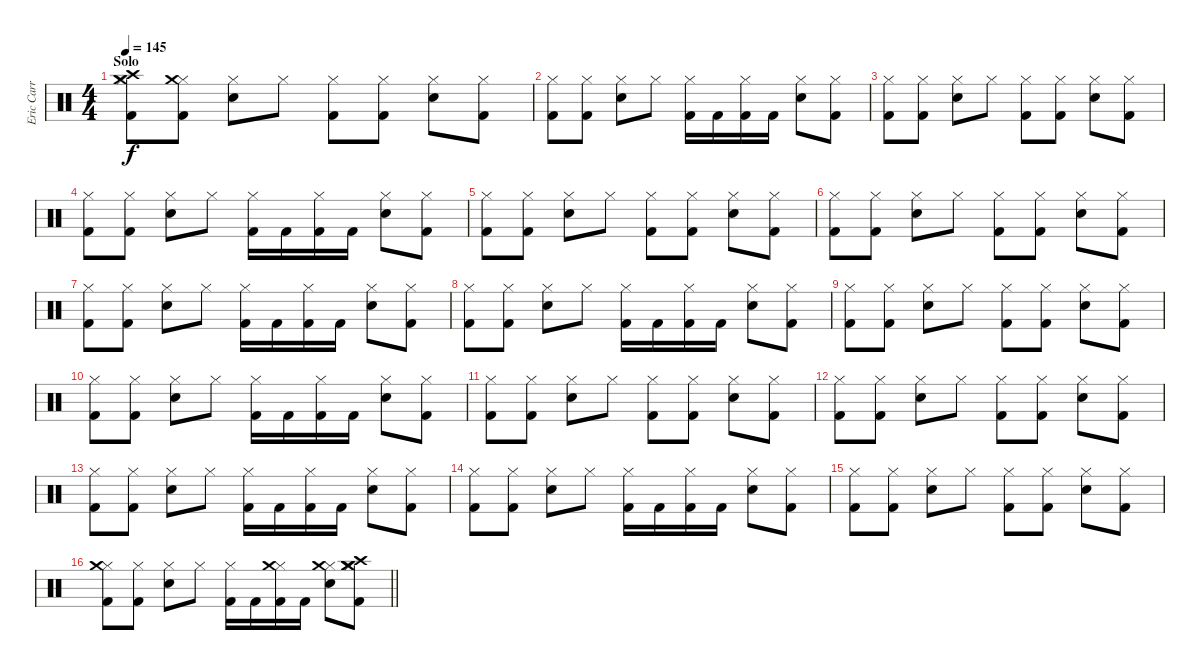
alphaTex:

\track ("Eric Carr" "Eric Carr") {instrument percussion}
\staff {score}
\articulation defaults
\ts (4 4)
\section ("" "Solo")
\tempo 145
\clef neutral
\ks c
("Hi-Hat (closed)" "Crash medium (hit)" "Crash high (hit)" "Kick (hit) 2").8{dy f} ("Hi-Hat (closed)" "Crash medium (hit)" "Kick (hit) 2").8 ("Hi-Hat (closed)" "Snare (hit) 2").8 "Hi-Hat (closed)".8 ("Hi-Hat (closed)" "Kick (hit) 2").8 ("Hi-Hat (closed)" "Kick (hit) 2").8 ("Hi-Hat (closed)" "Snare (hit) 2").8 ("Hi-Hat (closed)" "Kick (hit) 2").8 |
("Hi-Hat (closed)" "Kick (hit) 2").8 ("Hi-Hat (closed)" "Kick (hit) 2").8 ("Hi-Hat (closed)" "Snare (hit) 2").8 "Hi-Hat (closed)".8 ("Hi-Hat (closed)" "Kick (hit) 2").16 "Kick (hit) 2".16 ("Hi-Hat (closed)" "Kick (hit) 2").16 "Kick (hit) 2".16 ("Hi-Hat (closed)" "Snare (hit) 2").8 ("Hi-Hat (closed)" "Kick (hit) 2").8 |
("Hi-Hat (closed)" "Kick (hit) 2").8 ("Hi-Hat (closed)" "Kick (hit) 2").8 ("Hi-Hat (closed)" "Snare (hit) 2").8 "Hi-Hat (closed)".8 ("Hi-Hat (closed)" "Kick (hit) 2").8 ("Hi-Hat (closed)" "Kick (hit) 2").8 ("Hi-Hat (closed)" "Snare (hit) 2").8 ("Hi-Hat (closed)" "Kick (hit) 2").8 |
("Hi-Hat (closed)" "Kick (hit) 2").8 ("Hi-Hat (closed)" "Kick (hit) 2").8 ("Hi-Hat (closed)" "Snare (hit) 2").8 "Hi-Hat (closed)".8 ("Hi-Hat (closed)" "Kick (hit) 2").16 "Kick (hit) 2".16 ("Hi-Hat (closed)" "Kick (hit) 2").16 "Kick (hit) 2".16 ("Hi-Hat (closed)" "Snare (hit) 2").8 ("Hi-Hat (closed)" "Kick (hit) 2").8 |
("Hi-Hat (closed)" "Kick (hit) 2").8 ("Hi-Hat (closed)" "Kick (hit) 2").8 ("Hi-Hat (closed)" "Snare (hit) 2").8 "Hi-Hat (closed)".8 ("Hi-Hat (closed)" "Kick (hit) 2").8 ("Hi-Hat (closed)" "Kick (hit) 2").8 ("Hi-Hat (closed)" "Snare (hit) 2").8 ("Hi-Hat (closed)" "Kick (hit) 2").8 |
("Hi-Hat (closed)" "Kick (hit) 2").8 ("Hi-Hat (closed)" "Kick (hit) 2").8 ("Hi-Hat (closed)" "Snare (hit) 2").8 "Hi-Hat (closed)".8 ("Hi-Hat (closed)" "Kick (hit) 2").8 ("Hi-Hat (closed)" "Kick (hit) 2").8 ("Hi-Hat (closed)" "Snare (hit) 2").8 ("Hi-Hat (closed)" "Kick (hit) 2").8 |
("Hi-Hat (closed)" "Kick (hit) 2").8 ("Hi-Hat (closed)" "Kick (hit) 2").8 ("Hi-Hat (closed)" "Snare (hit) 2").8 "Hi-Hat (closed)".8 ("Hi-Hat (closed)" "Kick (hit) 2").16 "Kick (hit) 2".16 ("Hi-Hat (closed)" "Kick (hit) 2").16 "Kick (hit) 2".16 ("Hi-Hat (closed)" "Snare (hit) 2").8 ("Hi-Hat (closed)" "Kick (hit) 2").8 |
("Hi-Hat (closed)" "Kick (hit) 2").8 ("Hi-Hat (closed)" "Kick (hit) 2").8 ("Hi-Hat (closed)" "Snare (hit) 2").8 "Hi-Hat (closed)".8 ("Hi-Hat (closed)" "Kick (hit) 2").16 "Kick (hit) 2".16 ("Hi-Hat (closed)" "Kick (hit) 2").16 "Kick (hit) 2".16 ("Hi-Hat (closed)" "Snare (hit) 2").8 ("Hi-Hat (closed)" "Kick (hit) 2").8 |
("Hi-Hat (closed)" "Kick (hit) 2").8 ("Hi-Hat (closed)" "Kick (hit) 2").8 ("Hi-Hat (closed)" "Snare (hit) 2").8 "Hi-Hat (closed)".8 ("Hi-Hat (closed)" "Kick (hit) 2").8 ("Hi-Hat (closed)" "Kick (hit) 2").8 ("Hi-Hat (closed)" "Snare (hit) 2").8 ("Hi-Hat (closed)" "Kick (hit) 2").8 |
("Hi-Hat (closed)" "Kick (hit) 2").8 ("Hi-Hat (closed)" "Kick (hit) 2").8 ("Hi-Hat (closed)" "Snare (hit) 2").8 "Hi-Hat (closed)".8 ("Hi-Hat (closed)" "Kick (hit) 2").16 "Kick (hit) 2".16 ("Hi-Hat (closed)" "Kick (hit) 2").16 "Kick (hit) 2".16 ("Hi-Hat (closed)" "Snare (hit) 2").8 ("Hi-Hat (closed)" "Kick (hit) 2").8 |
("Hi-Hat (closed)" "Kick (hit) 2").8 ("Hi-Hat (closed)" "Kick (hit) 2").8 ("Hi-Hat (closed)" "Snare (hit) 2").8 "Hi-Hat (closed)".8 ("Hi-Hat (closed)" "Kick (hit) 2").8 ("Hi-Hat (closed)" "Kick (hit) 2").8 ("Hi-Hat (closed)" "Snare (hit) 2").8 ("Hi-Hat (closed)" "Kick (hit) 2").8 |
("Hi-Hat (closed)" "Kick (hit) 2").8 ("Hi-Hat (closed)" "Kick (hit) 2").8 ("Hi-Hat (closed)" "Snare (hit) 2").8 "Hi-Hat (closed)".8 ("Hi-Hat (closed)" "Kick (hit) 2").8 ("Hi-Hat (closed)" "Kick (hit) 2").8 ("Hi-Hat (closed)" "Snare (hit) 2").8 ("Hi-Hat (closed)" "Kick (hit) 2").8 |
("Hi-Hat (closed)" "Kick (hit) 2").8 ("Hi-Hat (closed)" "Kick (hit) 2").8 ("Hi-Hat (closed)" "Snare (hit) 2").8 "Hi-Hat (closed)".8 ("Hi-Hat (closed)" "Kick (hit) 2").16 "Kick (hit) 2".16 ("Hi-Hat (closed)" "Kick (hit) 2").16 "Kick (hit) 2".16 ("Hi-Hat (closed)" "Snare (hit) 2").8 ("Hi-Hat (closed)" "Kick (hit) 2").8 |
("Hi-Hat (closed)" "Kick (hit) 2").8 ("Hi-Hat (closed)" "Kick (hit) 2").8 ("Hi-Hat (closed)" "Snare (hit) 2").8 "Hi-Hat (closed)".8 ("Hi-Hat (closed)" "Kick (hit) 2").16 "Kick (hit) 2".16 ("Hi-Hat (closed)" "Kick (hit) 2").16 "Kick (hit) 2".16 ("Hi-Hat (closed)" "Snare (hit) 2").8 ("Hi-Hat (closed)" "Kick (hit) 2").8 |
("Hi-Hat (closed)" "Kick (hit) 2").8 ("Hi-Hat (closed)" "Kick (hit) 2").8 ("Hi-Hat (closed)" "Snare (hit) 2").8 "Hi-Hat (closed)".8 ("Hi-Hat (closed)" "Kick (hit) 2").8 ("Hi-Hat (closed)" "Kick (hit) 2").8 ("Hi-Hat (closed)" "Snare (hit) 2").8 ("Hi-Hat (closed)" "Kick (hit) 2").8 |
\barLineRight lightlight
("Hi-Hat (closed)" "Crash medium (hit)" "Kick (hit) 2").8 ("Hi-Hat (closed)" "Kick (hit) 2").8 ("Hi-Hat (closed)" "Snare (hit) 2").8 "Hi-Hat (closed)".8 ("Hi-Hat (closed)" "Kick (hit) 2").16 "Kick (hit) 2".16 ("Hi-Hat (closed)" "Crash medium (hit)" "Kick (hit) 2").16 "Kick (hit) 2".16 ("Hi-Hat (closed)" "Snare (hit) 2" "Crash medium (hit)").8 ("Hi-Hat (closed)" "Crash high (hit)" "Crash medium (hit)" "Crash medium (hit)" "Kick (hit) 2").8
